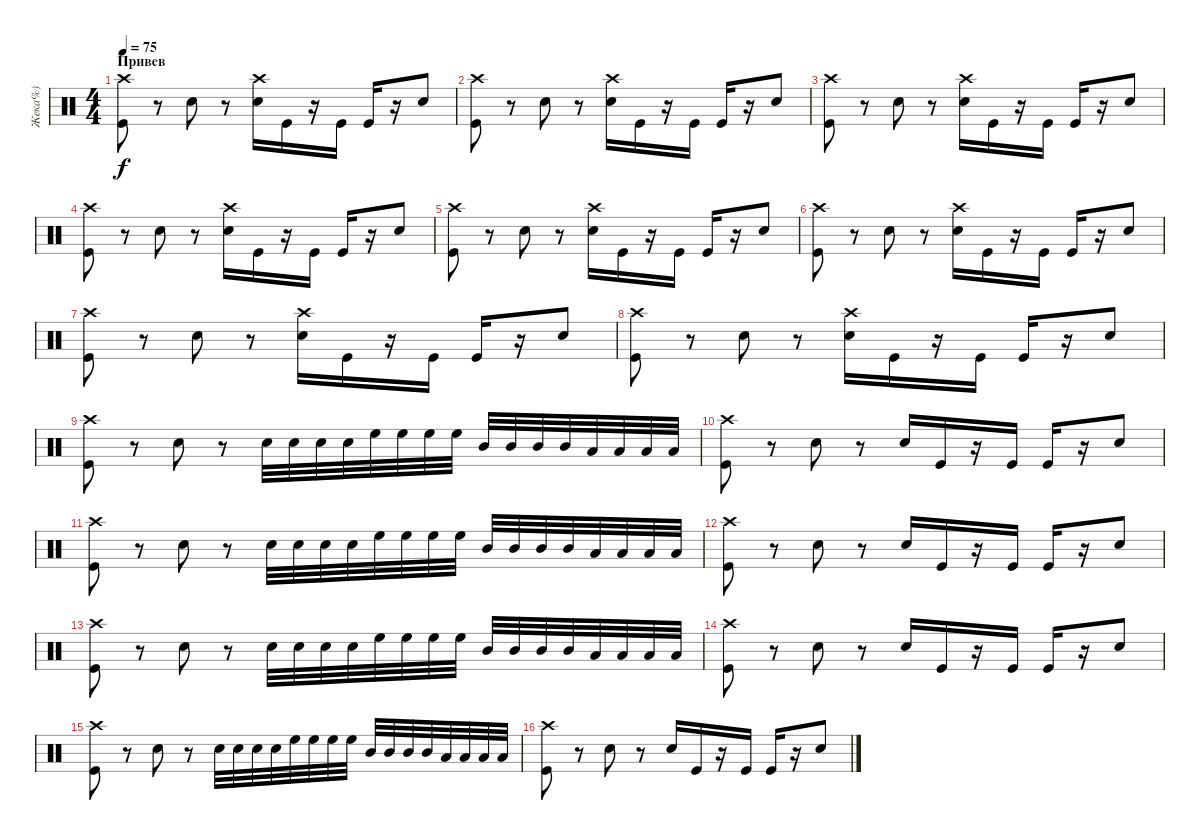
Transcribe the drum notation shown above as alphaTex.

\track ("Жека%)" "Жека%)") {instrument percussion}
\staff {score}
\articulation defaults
\ts (4 4)
\section ("" "Привев")
\tempo 75
\clef neutral
\ks c
("Kick (hit)" "Crash high (hit)").8{dy f} r.8 "Snare (hit) 2".8 r.8 ("Snare (hit) 2" "Crash high (hit)").16 "Kick (hit)".16 r.16 "Kick (hit)".16 "Kick (hit)".16 r.16 "Snare (hit) 2".8 |
("Kick (hit)" "Crash high (hit)").8 r.8 "Snare (hit) 2".8 r.8 ("Snare (hit) 2" "Crash high (hit)").16 "Kick (hit)".16 r.16 "Kick (hit)".16 "Kick (hit)".16 r.16 "Snare (hit) 2".8 |
("Kick (hit)" "Crash high (hit)").8 r.8 "Snare (hit) 2".8 r.8 ("Snare (hit) 2" "Crash high (hit)").16 "Kick (hit)".16 r.16 "Kick (hit)".16 "Kick (hit)".16 r.16 "Snare (hit) 2".8 |
("Kick (hit)" "Crash high (hit)").8 r.8 "Snare (hit) 2".8 r.8 ("Snare (hit) 2" "Crash high (hit)").16 "Kick (hit)".16 r.16 "Kick (hit)".16 "Kick (hit)".16 r.16 "Snare (hit) 2".8 |
("Kick (hit)" "Crash high (hit)").8 r.8 "Snare (hit) 2".8 r.8 ("Snare (hit) 2" "Crash high (hit)").16 "Kick (hit)".16 r.16 "Kick (hit)".16 "Kick (hit)".16 r.16 "Snare (hit) 2".8 |
("Kick (hit)" "Crash high (hit)").8 r.8 "Snare (hit) 2".8 r.8 ("Snare (hit) 2" "Crash high (hit)").16 "Kick (hit)".16 r.16 "Kick (hit)".16 "Kick (hit)".16 r.16 "Snare (hit) 2".8 |
("Kick (hit)" "Crash high (hit)").8 r.8 "Snare (hit) 2".8 r.8 ("Snare (hit) 2" "Crash high (hit)").16 "Kick (hit)".16 r.16 "Kick (hit)".16 "Kick (hit)".16 r.16 "Snare (hit) 2".8 |
("Kick (hit)" "Crash high (hit)").8 r.8 "Snare (hit) 2".8 r.8 ("Snare (hit) 2" "Crash high (hit)").16 "Kick (hit)".16 r.16 "Kick (hit)".16 "Kick (hit)".16 r.16 "Snare (hit) 2".8 |
("Kick (hit)" "Crash high (hit)").8 r.8 "Snare (hit) 2".8 r.8 "Snare (hit) 2".32 "Snare (hit) 2".32 "Snare (hit) 2".32 "Snare (hit) 2".32 "High Floor Tom (hit)".32 "High Floor Tom (hit)".32 "High Floor Tom (hit)".32 "High Floor Tom (hit)".32 "Mid Tom (hit)".32 "Mid Tom (hit)".32 "Mid Tom (hit)".32 "Mid Tom (hit)".32 "Low Tom (hit)".32 "Low Tom (hit)".32 "Low Tom (hit)".32 "Low Tom (hit)".32 |
("Kick (hit)" "Crash high (hit)").8 r.8 "Snare (hit) 2".8 r.8 "Snare (hit) 2".16 "Kick (hit)".16 r.16 "Kick (hit)".16 "Kick (hit)".16 r.16 "Snare (hit) 2".8 |
("Kick (hit)" "Crash high (hit)").8 r.8 "Snare (hit) 2".8 r.8 "Snare (hit) 2".32 "Snare (hit) 2".32 "Snare (hit) 2".32 "Snare (hit) 2".32 "High Floor Tom (hit)".32 "High Floor Tom (hit)".32 "High Floor Tom (hit)".32 "High Floor Tom (hit)".32 "Mid Tom (hit)".32 "Mid Tom (hit)".32 "Mid Tom (hit)".32 "Mid Tom (hit)".32 "Low Tom (hit)".32 "Low Tom (hit)".32 "Low Tom (hit)".32 "Low Tom (hit)".32 |
("Kick (hit)" "Crash high (hit)").8 r.8 "Snare (hit) 2".8 r.8 "Snare (hit) 2".16 "Kick (hit)".16 r.16 "Kick (hit)".16 "Kick (hit)".16 r.16 "Snare (hit) 2".8 |
("Kick (hit)" "Crash high (hit)").8 r.8 "Snare (hit) 2".8 r.8 "Snare (hit) 2".32 "Snare (hit) 2".32 "Snare (hit) 2".32 "Snare (hit) 2".32 "High Floor Tom (hit)".32 "High Floor Tom (hit)".32 "High Floor Tom (hit)".32 "High Floor Tom (hit)".32 "Mid Tom (hit)".32 "Mid Tom (hit)".32 "Mid Tom (hit)".32 "Mid Tom (hit)".32 "Low Tom (hit)".32 "Low Tom (hit)".32 "Low Tom (hit)".32 "Low Tom (hit)".32 |
("Kick (hit)" "Crash high (hit)").8 r.8 "Snare (hit) 2".8 r.8 "Snare (hit) 2".16 "Kick (hit)".16 r.16 "Kick (hit)".16 "Kick (hit)".16 r.16 "Snare (hit) 2".8 |
("Kick (hit)" "Crash high (hit)").8 r.8 "Snare (hit) 2".8 r.8 "Snare (hit) 2".32 "Snare (hit) 2".32 "Snare (hit) 2".32 "Snare (hit) 2".32 "High Floor Tom (hit)".32 "High Floor Tom (hit)".32 "High Floor Tom (hit)".32 "High Floor Tom (hit)".32 "Mid Tom (hit)".32 "Mid Tom (hit)".32 "Mid Tom (hit)".32 "Mid Tom (hit)".32 "Low Tom (hit)".32 "Low Tom (hit)".32 "Low Tom (hit)".32 "Low Tom (hit)".32 |
("Kick (hit)" "Crash high (hit)").8 r.8 "Snare (hit) 2".8 r.8 "Snare (hit) 2".16 "Kick (hit)".16 r.16 "Kick (hit)".16 "Kick (hit)".16 r.16 "Snare (hit) 2".8
